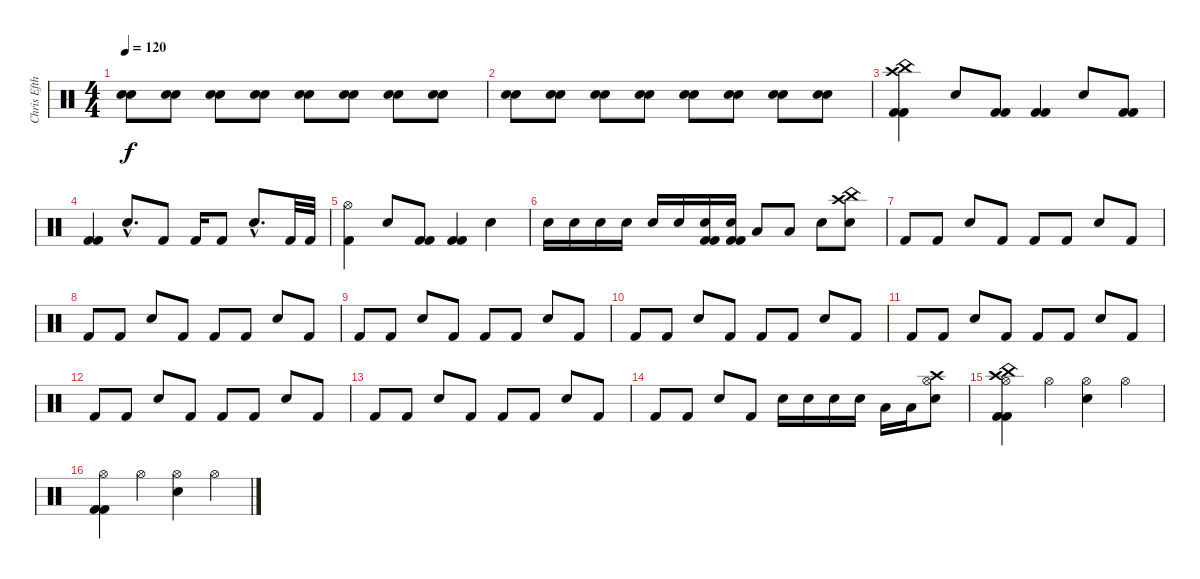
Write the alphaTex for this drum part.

\track ("Chris Efthimiadis" "Chris Efth") {instrument percussion}
\staff {score}
\articulation defaults
\ts (4 4)
\tempo 120
\clef neutral
\ks c
("Snare (hit) 2" "Snare (hit) 2").8{dy f} ("Snare (hit) 2" "Snare (hit) 2").8 ("Snare (hit) 2" "Snare (hit) 2").8 ("Snare (hit) 2" "Snare (hit) 2").8 ("Snare (hit) 2" "Snare (hit) 2").8 ("Snare (hit) 2" "Snare (hit) 2").8 ("Snare (hit) 2" "Snare (hit) 2").8 ("Snare (hit) 2" "Snare (hit) 2").8 |
("Snare (hit) 2" "Snare (hit) 2").8 ("Snare (hit) 2" "Snare (hit) 2").8 ("Snare (hit) 2" "Snare (hit) 2").8 ("Snare (hit) 2" "Snare (hit) 2").8 ("Snare (hit) 2" "Snare (hit) 2").8 ("Snare (hit) 2" "Snare (hit) 2").8 ("Snare (hit) 2" "Snare (hit) 2").8 ("Snare (hit) 2" "Snare (hit) 2").8 |
("Kick (hit) 2" "Kick (hit) 2" "China (hit)" "Crash high (hit)").4 "Snare (hit) 2".8 ("Kick (hit) 2" "Kick (hit) 2").8 ("Kick (hit) 2" "Kick (hit) 2").4 "Snare (hit) 2".8 ("Kick (hit) 2" "Kick (hit) 2").8 |
("Kick (hit) 2" "Kick (hit) 2").4 "Snare (hit) 2"{hac}.8{d} "Kick (hit) 2".8 "Kick (hit) 2".16 "Kick (hit) 2".8 "Snare (hit) 2"{hac}.8{d} "Kick (hit) 2".32 "Kick (hit) 2".32 |
("Hi-Hat (open)" "Kick (hit) 2").4 "Snare (hit) 2".8 ("Kick (hit) 2" "Kick (hit) 2").8 ("Kick (hit) 2" "Kick (hit) 2").4 "Snare (hit) 2".4 |
"Snare (hit) 2".16 "Snare (hit) 2".16 "Snare (hit) 2".16 "Snare (hit) 2".16 "Snare (hit) 2".16 "Snare (hit) 2".16 ("Snare (hit) 2" "Kick (hit) 2" "Kick (hit) 2").16 ("Snare (hit) 2" "Kick (hit) 2" "Kick (hit) 2").16 "Low Tom (hit)".8 "Low Tom (hit)".8 "Snare (hit) 2".8 ("Snare (hit) 2" "China (hit)" "Crash high (hit)").8 |
"Kick (hit) 2".8 "Kick (hit) 2".8 "Snare (hit) 2".8 "Kick (hit) 2".8 "Kick (hit) 2".8 "Kick (hit) 2".8 "Snare (hit) 2".8 "Kick (hit) 2".8 |
"Kick (hit) 2".8 "Kick (hit) 2".8 "Snare (hit) 2".8 "Kick (hit) 2".8 "Kick (hit) 2".8 "Kick (hit) 2".8 "Snare (hit) 2".8 "Kick (hit) 2".8 |
"Kick (hit) 2".8 "Kick (hit) 2".8 "Snare (hit) 2".8 "Kick (hit) 2".8 "Kick (hit) 2".8 "Kick (hit) 2".8 "Snare (hit) 2".8 "Kick (hit) 2".8 |
"Kick (hit) 2".8 "Kick (hit) 2".8 "Snare (hit) 2".8 "Kick (hit) 2".8 "Kick (hit) 2".8 "Kick (hit) 2".8 "Snare (hit) 2".8 "Kick (hit) 2".8 |
"Kick (hit) 2".8 "Kick (hit) 2".8 "Snare (hit) 2".8 "Kick (hit) 2".8 "Kick (hit) 2".8 "Kick (hit) 2".8 "Snare (hit) 2".8 "Kick (hit) 2".8 |
"Kick (hit) 2".8 "Kick (hit) 2".8 "Snare (hit) 2".8 "Kick (hit) 2".8 "Kick (hit) 2".8 "Kick (hit) 2".8 "Snare (hit) 2".8 "Kick (hit) 2".8 |
"Kick (hit) 2".8 "Kick (hit) 2".8 "Snare (hit) 2".8 "Kick (hit) 2".8 "Kick (hit) 2".8 "Kick (hit) 2".8 "Snare (hit) 2".8 "Kick (hit) 2".8 |
"Kick (hit) 2".8 "Kick (hit) 2".8 "Snare (hit) 2".8 "Kick (hit) 2".8 "Snare (hit) 2".16 "Snare (hit) 2".16 "Snare (hit) 2".16 "Snare (hit) 2".16 "Low Tom (hit)".16 "Low Tom (hit)".16 ("Snare (hit) 2" "Crash high (hit)" "Hi-Hat (open)").8 |
("China (hit)" "Hi-Hat (open)" "Crash high (hit)" "Kick (hit) 2" "Kick (hit) 2").4 "Hi-Hat (open)".4 ("Hi-Hat (open)" "Snare (hit) 2").4 "Hi-Hat (open)".4 |
("Hi-Hat (open)" "Kick (hit) 2" "Kick (hit) 2").4 "Hi-Hat (open)".4 ("Hi-Hat (open)" "Snare (hit) 2").4 "Hi-Hat (open)".4
